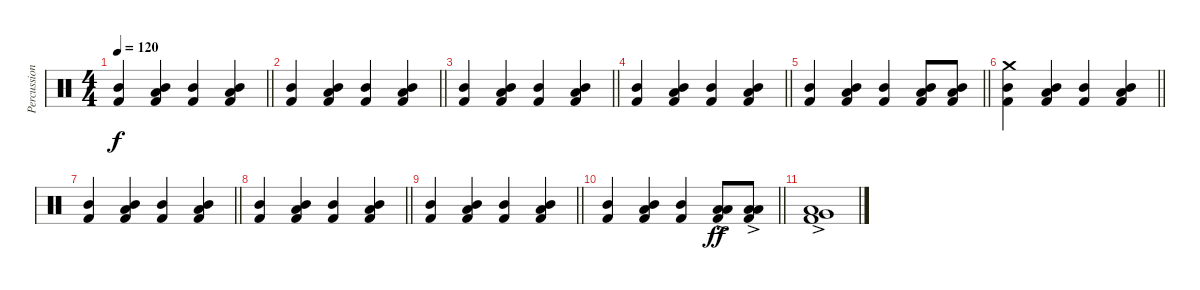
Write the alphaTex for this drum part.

\track ("Percussion" "Percussion") {instrument percussion}
\staff {score}
\articulation defaults
\ts (4 4)
\tempo 120
\clef neutral
\barLineRight lightlight
\ks c
("Mid Tom (hit)" "Kick (hit) 2").4{dy f} ("Mid Tom (hit)" "Low Floor Tom (hit)" "Kick (hit) 2").4 ("Mid Tom (hit)" "Kick (hit) 2").4 ("Mid Tom (hit)" "Low Floor Tom (hit)" "Kick (hit) 2").4 |
\barLineRight lightlight
("Mid Tom (hit)" "Kick (hit) 2").4 ("Mid Tom (hit)" "Low Floor Tom (hit)" "Kick (hit) 2").4 ("Mid Tom (hit)" "Kick (hit) 2").4 ("Mid Tom (hit)" "Low Floor Tom (hit)" "Kick (hit) 2").4 |
\barLineRight lightlight
("Mid Tom (hit)" "Kick (hit) 2").4 ("Mid Tom (hit)" "Low Floor Tom (hit)" "Kick (hit) 2").4 ("Mid Tom (hit)" "Kick (hit) 2").4 ("Mid Tom (hit)" "Low Floor Tom (hit)" "Kick (hit) 2").4 |
\barLineRight lightlight
("Mid Tom (hit)" "Kick (hit) 2").4 ("Mid Tom (hit)" "Low Floor Tom (hit)" "Kick (hit) 2").4 ("Mid Tom (hit)" "Kick (hit) 2").4 ("Mid Tom (hit)" "Low Floor Tom (hit)" "Kick (hit) 2").4 |
\barLineRight lightlight
("Mid Tom (hit)" "Kick (hit) 2").4 ("Mid Tom (hit)" "Low Floor Tom (hit)" "Kick (hit) 2").4 ("Mid Tom (hit)" "Kick (hit) 2").4 ("Mid Tom (hit)" "Low Floor Tom (hit)" "Kick (hit) 2").8 ("Mid Tom (hit)" "Low Floor Tom (hit)" "Kick (hit) 2").8 |
\barLineRight lightlight
("Crash medium (hit)" "Mid Tom (hit)" "Kick (hit) 2").4 ("Mid Tom (hit)" "Low Floor Tom (hit)" "Kick (hit) 2").4 ("Mid Tom (hit)" "Kick (hit) 2").4 ("Mid Tom (hit)" "Low Floor Tom (hit)" "Kick (hit) 2").4 |
\barLineRight lightlight
("Mid Tom (hit)" "Kick (hit) 2").4 ("Mid Tom (hit)" "Low Floor Tom (hit)" "Kick (hit) 2").4 ("Mid Tom (hit)" "Kick (hit) 2").4 ("Mid Tom (hit)" "Low Floor Tom (hit)" "Kick (hit) 2").4 |
\barLineRight lightlight
("Mid Tom (hit)" "Kick (hit) 2").4 ("Mid Tom (hit)" "Low Floor Tom (hit)" "Kick (hit) 2").4 ("Mid Tom (hit)" "Kick (hit) 2").4 ("Mid Tom (hit)" "Low Floor Tom (hit)" "Kick (hit) 2").4 |
\barLineRight lightlight
("Mid Tom (hit)" "Kick (hit) 2").4 ("Mid Tom (hit)" "Low Floor Tom (hit)" "Kick (hit) 2").4 ("Mid Tom (hit)" "Kick (hit) 2").4 ("Mid Tom (hit)" "Low Floor Tom (hit)" "Kick (hit) 2").4 |
\barLineRight lightlight
("Mid Tom (hit)" "Kick (hit) 2").4 ("Mid Tom (hit)" "Low Floor Tom (hit)" "Kick (hit) 2").4 ("Mid Tom (hit)" "Kick (hit) 2").4 ("Low Tom (hit)"{ac} "Low Floor Tom (hit)" "Kick (hit) 2").8{dy ff} ("Low Tom (hit)"{ac} "Low Floor Tom (hit)" "Kick (hit) 2").8 |
("Very Low Tom (hit)"{ac} "Low Floor Tom (hit)" "Kick (hit) 2").1
